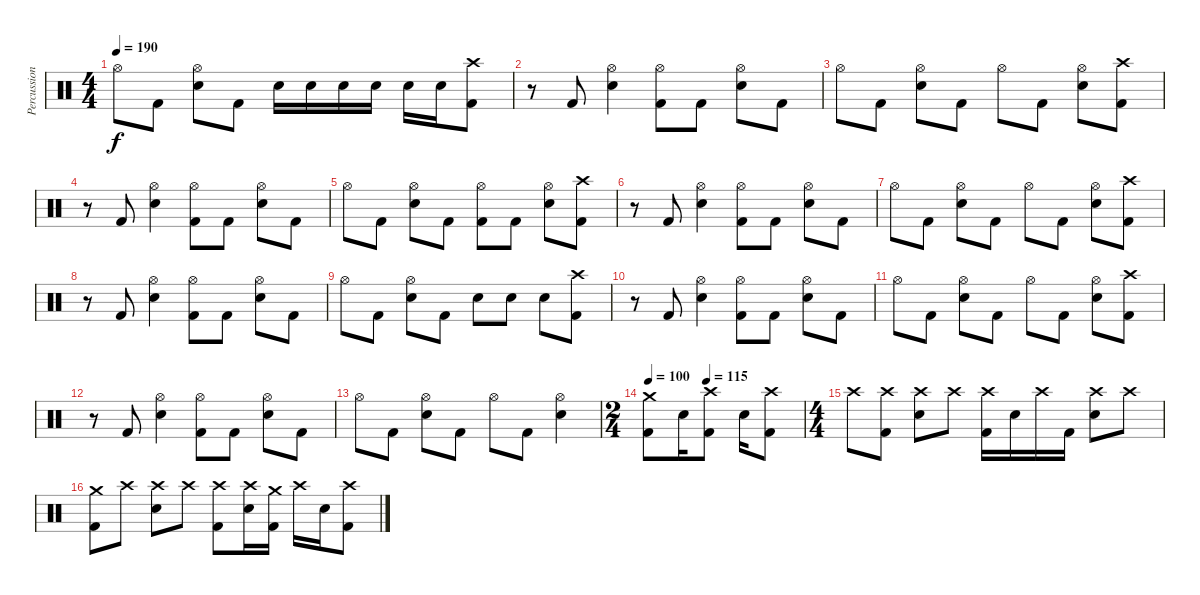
\track ("Percussion" "Percussion") {instrument percussion}
\staff {score}
\articulation defaults
\ts (4 4)
\tempo 190
\clef neutral
\ks c "Hi-Hat (open)".8{dy f} "Kick (hit) 2".8
("Hi-Hat (open)" "Electric Snare (hit)").8 "Kick (hit) 2".8 "Electric Snare (hit)".16 "Electric Snare (hit)".16 "Electric Snare (hit)".16 "Electric Snare (hit)".16 "Electric Snare (hit)".16 "Electric Snare (hit)".16 ("Crash high (hit)" "Kick (hit) 2").8 |
r.8 "Kick (hit) 2".8 ("Hi-Hat (open)" "Electric Snare (hit)").4 ("Hi-Hat (open)" "Kick (hit) 2").8 "Kick (hit) 2".8 ("Hi-Hat (open)" "Electric Snare (hit)").8 "Kick (hit) 2".8 |
"Hi-Hat (open)".8 "Kick (hit) 2".8 ("Hi-Hat (open)" "Electric Snare (hit)").8 "Kick (hit) 2".8 "Hi-Hat (open)".8 "Kick (hit) 2".8 ("Hi-Hat (open)" "Electric Snare (hit)").8 ("Crash high (hit)" "Kick (hit) 2").8 |
r.8 "Kick (hit) 2".8 ("Hi-Hat (open)" "Electric Snare (hit)").4 ("Hi-Hat (open)" "Kick (hit) 2").8 "Kick (hit) 2".8 ("Hi-Hat (open)" "Electric Snare (hit)").8 "Kick (hit) 2".8 |
"Hi-Hat (open)".8 "Kick (hit) 2".8 ("Hi-Hat (open)" "Electric Snare (hit)").8 "Kick (hit) 2".8 ("Hi-Hat (open)" "Kick (hit) 2").8 "Kick (hit) 2".8 ("Hi-Hat (open)" "Electric Snare (hit)").8 ("Crash high (hit)" "Kick (hit) 2").8 |
r.8 "Kick (hit) 2".8 ("Hi-Hat (open)" "Electric Snare (hit)").4 ("Hi-Hat (open)" "Kick (hit) 2").8 "Kick (hit) 2".8 ("Hi-Hat (open)" "Electric Snare (hit)").8 "Kick (hit) 2".8 |
"Hi-Hat (open)".8 "Kick (hit) 2".8 ("Hi-Hat (open)" "Electric Snare (hit)").8 "Kick (hit) 2".8 "Hi-Hat (open)".8 "Kick (hit) 2".8 ("Hi-Hat (open)" "Electric Snare (hit)").8 ("Crash high (hit)" "Kick (hit) 2").8 |
r.8 "Kick (hit) 2".8 ("Hi-Hat (open)" "Electric Snare (hit)").4 ("Hi-Hat (open)" "Kick (hit) 2").8 "Kick (hit) 2".8 ("Hi-Hat (open)" "Electric Snare (hit)").8 "Kick (hit) 2".8 |
"Hi-Hat (open)".8 "Kick (hit) 2".8 ("Hi-Hat (open)" "Electric Snare (hit)").8 "Kick (hit) 2".8 "Electric Snare (hit)".8 "Electric Snare (hit)".8 "Electric Snare (hit)".8 ("Crash high (hit)" "Kick (hit) 2").8 |
r.8 "Kick (hit) 2".8 ("Hi-Hat (open)" "Electric Snare (hit)").4 ("Hi-Hat (open)" "Kick (hit) 2").8 "Kick (hit) 2".8 ("Hi-Hat (open)" "Electric Snare (hit)").8 "Kick (hit) 2".8 |
"Hi-Hat (open)".8 "Kick (hit) 2".8 ("Hi-Hat (open)" "Electric Snare (hit)").8 "Kick (hit) 2".8 "Hi-Hat (open)".8 "Kick (hit) 2".8 ("Hi-Hat (open)" "Electric Snare (hit)").8 ("Crash high (hit)" "Kick (hit) 2").8 |
r.8 "Kick (hit) 2".8 ("Hi-Hat (open)" "Electric Snare (hit)").4 ("Hi-Hat (open)" "Kick (hit) 2").8 "Kick (hit) 2".8 ("Hi-Hat (open)" "Electric Snare (hit)").8 "Kick (hit) 2".8 |
"Hi-Hat (open)".8 "Kick (hit) 2".8 ("Hi-Hat (open)" "Electric Snare (hit)").8 "Kick (hit) 2".8 "Hi-Hat (open)".8 "Kick (hit) 2".8 ("Hi-Hat (open)" "Electric Snare (hit)").4 |
\ts (2 4)
\tempo 100
\tempo (115 0.375)
("Crash medium (hit)" "Kick (hit) 2").8 "Electric Snare (hit)".16 ("Crash high (hit)" "Kick (hit) 2").8 "Electric Snare (hit)".16 ("Crash high (hit)" "Kick (hit) 2").8 |
\ts (4 4)
"Crash high (hit)".8 ("Crash high (hit)" "Kick (hit) 2").8 ("Crash high (hit)" "Electric Snare (hit)").8 "Crash high (hit)".8 ("Crash high (hit)" "Kick (hit) 2").16 "Electric Snare (hit)".16 "Crash high (hit)".16 "Kick (hit) 2".16 ("Crash high (hit)" "Electric Snare (hit)").8 "Crash high (hit)".8 |
("Crash medium (hit)" "Kick (hit) 2").8 "Crash high (hit)".8 ("Crash high (hit)" "Electric Snare (hit)").8 "Crash high (hit)".8 ("Crash high (hit)" "Kick (hit) 2").8 ("Crash high (hit)" "Electric Snare (hit)").16 ("Crash medium (hit)" "Kick (hit) 2").16 "Crash high (hit)".16 "Electric Snare (hit)".16 ("Crash high (hit)" "Kick (hit) 2").8
